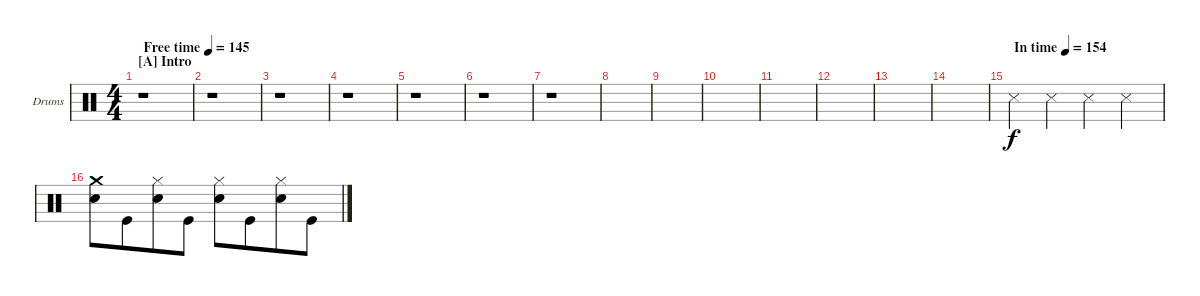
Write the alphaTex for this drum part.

\defaultSystemsLayout 4
\bracketExtendMode groupsimilarinstruments
\firstSystemTrackNameOrientation horizontal
\otherSystemsTrackNameOrientation horizontal
\track ("Drumkit" "Drums") {instrument percussion}
\staff {score}
\articulation defaults
\ts (4 4)
\beaming (8 4 4)
\section ("A" "Intro")
\tempo (145 "Free time")
\clef neutral
\scale
1.05675
\ks c
r.1{dy f} |
\scale
0.943253 r.1 |
\scale
1.02648 r.1 |
\scale
0.973518 r.1 |
\scale
1.02648 r.1 |
\scale
0.973518 r.1 |
\scale
1.02648 r.1 |
\scale
0.973518 |
\scale
1.02648 |
\scale
0.973518 |
\scale
1.02648 |
\scale
0.973518 |
\scale
1.02648 |
\scale
0.973518 |
\tempo (154 "In time")
\scale
1.02648 "Snare (side stick) 3".4 "Snare (side stick) 3".4 "Snare (side stick) 3".4 "Snare (side stick) 3".4 |
\scale
0.973518 ("Crash medium (hit)" "Snare (hit) 2").8 "Kick (hit)".8 ("Hi-Hat (closed)" "Snare (hit) 2").8 "Kick (hit)".8 ("Hi-Hat (closed)" "Snare (hit) 2").8 "Kick (hit)".8 ("Hi-Hat (closed)" "Snare (hit) 2").8 "Kick (hit)".8
